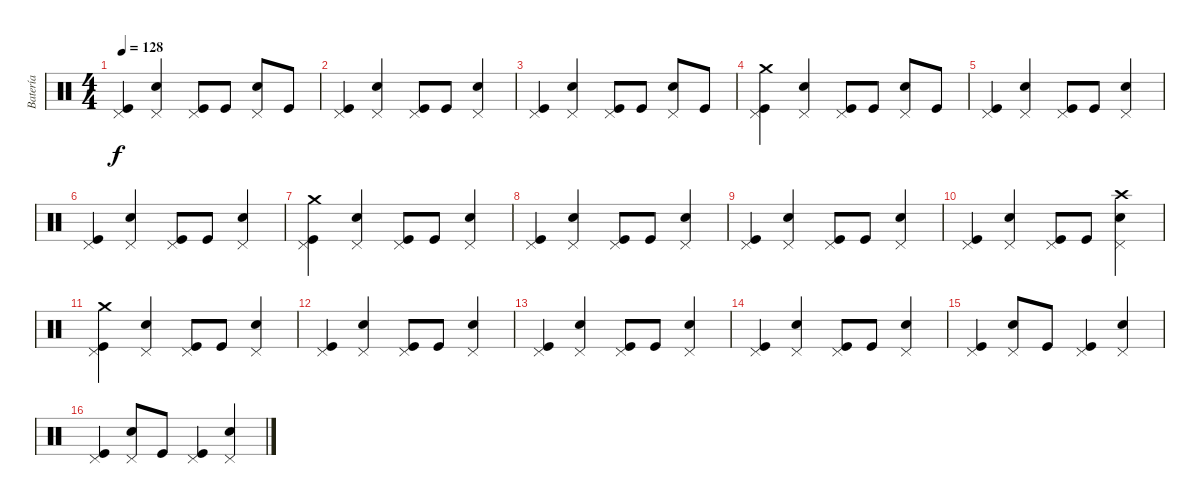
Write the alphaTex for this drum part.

\track ("Batería" "Batería") {instrument percussion}
\staff {score}
\articulation defaults
\ts (4 4)
\tempo 128
\clef neutral
\ks c
("Pedal Hi-Hat (hit)" "Kick (hit)").4{dy f} ("Pedal Hi-Hat (hit)" "Snare (hit) 2").4 ("Pedal Hi-Hat (hit)" "Kick (hit)").8 "Kick (hit)".8 ("Pedal Hi-Hat (hit)" "Snare (hit) 2").8 "Kick (hit)".8 |
("Pedal Hi-Hat (hit)" "Kick (hit)").4 ("Pedal Hi-Hat (hit)" "Snare (hit) 2").4 ("Pedal Hi-Hat (hit)" "Kick (hit)").8 "Kick (hit)".8 ("Pedal Hi-Hat (hit)" "Snare (hit) 2").4 |
("Pedal Hi-Hat (hit)" "Kick (hit)").4 ("Pedal Hi-Hat (hit)" "Snare (hit) 2").4 ("Pedal Hi-Hat (hit)" "Kick (hit)").8 "Kick (hit)".8 ("Pedal Hi-Hat (hit)" "Snare (hit) 2").8 "Kick (hit)".8 |
("Crash medium (hit)" "Pedal Hi-Hat (hit)" "Kick (hit)").4 ("Pedal Hi-Hat (hit)" "Snare (hit) 2").4 ("Pedal Hi-Hat (hit)" "Kick (hit)").8 "Kick (hit)".8 ("Pedal Hi-Hat (hit)" "Snare (hit) 2").8 "Kick (hit)".8 |
("Pedal Hi-Hat (hit)" "Kick (hit)").4 ("Pedal Hi-Hat (hit)" "Snare (hit) 2").4 ("Pedal Hi-Hat (hit)" "Kick (hit)").8 "Kick (hit)".8 ("Pedal Hi-Hat (hit)" "Snare (hit) 2").4 |
("Pedal Hi-Hat (hit)" "Kick (hit)").4 ("Pedal Hi-Hat (hit)" "Snare (hit) 2").4 ("Pedal Hi-Hat (hit)" "Kick (hit)").8 "Kick (hit)".8 ("Pedal Hi-Hat (hit)" "Snare (hit) 2").4 |
("Crash medium (hit)" "Pedal Hi-Hat (hit)" "Kick (hit)").4 ("Pedal Hi-Hat (hit)" "Snare (hit) 2").4 ("Pedal Hi-Hat (hit)" "Kick (hit)").8 "Kick (hit)".8 ("Pedal Hi-Hat (hit)" "Snare (hit) 2").4 |
("Pedal Hi-Hat (hit)" "Kick (hit)").4 ("Pedal Hi-Hat (hit)" "Snare (hit) 2").4 ("Pedal Hi-Hat (hit)" "Kick (hit)").8 "Kick (hit)".8 ("Pedal Hi-Hat (hit)" "Snare (hit) 2").4 |
("Pedal Hi-Hat (hit)" "Kick (hit)").4 ("Pedal Hi-Hat (hit)" "Snare (hit) 2").4 ("Pedal Hi-Hat (hit)" "Kick (hit)").8 "Kick (hit)".8 ("Pedal Hi-Hat (hit)" "Snare (hit) 2").4 |
("Pedal Hi-Hat (hit)" "Kick (hit)").4 ("Pedal Hi-Hat (hit)" "Snare (hit) 2").4 ("Pedal Hi-Hat (hit)" "Kick (hit)").8 "Kick (hit)".8 ("Crash high (hit)" "Pedal Hi-Hat (hit)" "Snare (hit) 2").4 |
("Crash medium (hit)" "Pedal Hi-Hat (hit)" "Kick (hit)").4 ("Pedal Hi-Hat (hit)" "Snare (hit) 2").4 ("Pedal Hi-Hat (hit)" "Kick (hit)").8 "Kick (hit)".8 ("Pedal Hi-Hat (hit)" "Snare (hit) 2").4 |
("Pedal Hi-Hat (hit)" "Kick (hit)").4 ("Pedal Hi-Hat (hit)" "Snare (hit) 2").4 ("Pedal Hi-Hat (hit)" "Kick (hit)").8 "Kick (hit)".8 ("Pedal Hi-Hat (hit)" "Snare (hit) 2").4 |
("Pedal Hi-Hat (hit)" "Kick (hit)").4 ("Pedal Hi-Hat (hit)" "Snare (hit) 2").4 ("Pedal Hi-Hat (hit)" "Kick (hit)").8 "Kick (hit)".8 ("Pedal Hi-Hat (hit)" "Snare (hit) 2").4 |
("Pedal Hi-Hat (hit)" "Kick (hit)").4 ("Pedal Hi-Hat (hit)" "Snare (hit) 2").4 ("Pedal Hi-Hat (hit)" "Kick (hit)").8 "Kick (hit)".8 ("Pedal Hi-Hat (hit)" "Snare (hit) 2").4 |
("Pedal Hi-Hat (hit)" "Kick (hit)").4 ("Pedal Hi-Hat (hit)" "Snare (hit) 2").8 "Kick (hit)".8 ("Pedal Hi-Hat (hit)" "Kick (hit)").4 ("Pedal Hi-Hat (hit)" "Snare (hit) 2").4 |
("Pedal Hi-Hat (hit)" "Kick (hit)").4 ("Pedal Hi-Hat (hit)" "Snare (hit) 2").8 "Kick (hit)".8 ("Pedal Hi-Hat (hit)" "Kick (hit)").4 ("Pedal Hi-Hat (hit)" "Snare (hit) 2").4
